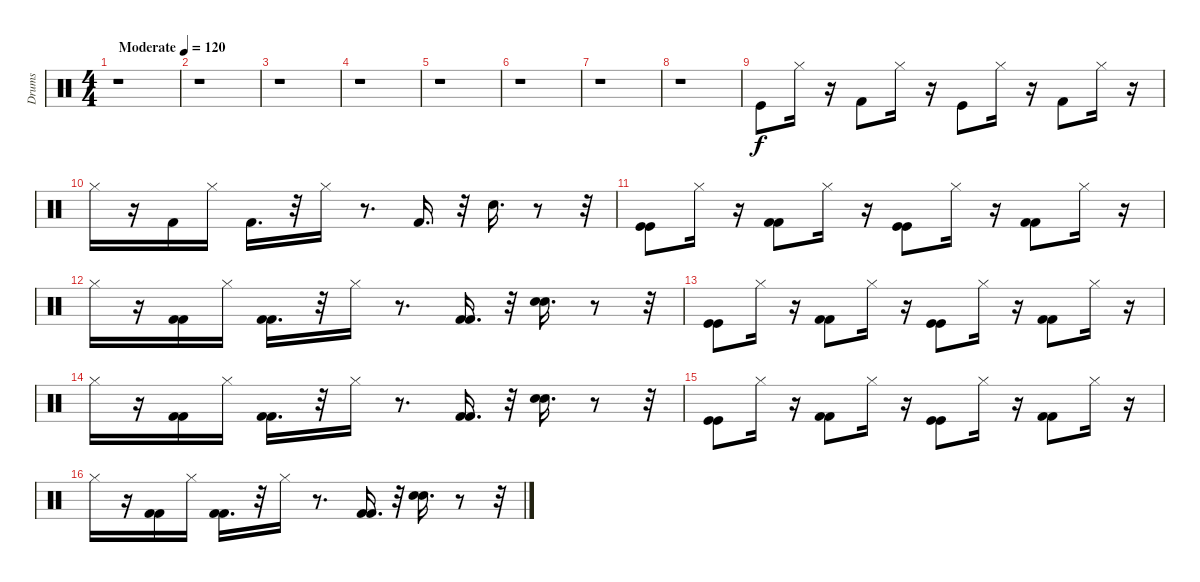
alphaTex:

\track ("Drums" "Drums") {instrument percussion}
\staff {score}
\articulation defaults
\ts (4 4)
\tempo (120 "Moderate")
\clef neutral
\ks c
r.1{dy f} |
r.1 |
r.1 |
r.1 |
r.1 |
r.1 |
r.1 |
r.1 |
"Kick (hit)".8 "Hi-Hat (closed)".16 r.16 "Kick (hit) 2".8 "Hi-Hat (closed)".16 r.16 "Kick (hit)".8 "Hi-Hat (closed)".16 r.16 "Kick (hit) 2".8 "Hi-Hat (closed)".16 r.16 |
"Hi-Hat (closed)".16 r.16 "Kick (hit) 2".16 "Hi-Hat (closed)".16 "Kick (hit) 2".16{d} r.32 "Hi-Hat (closed)".16 r.8{d} "Kick (hit) 2".16{d} r.32 "Electric Snare (hit)".16{d} r.8 r.32 |
("Kick (hit)" "Kick (hit)").8 "Hi-Hat (closed)".16 r.16 ("Kick (hit) 2" "Kick (hit) 2").8 "Hi-Hat (closed)".16 r.16 ("Kick (hit)" "Kick (hit)").8 "Hi-Hat (closed)".16 r.16 ("Kick (hit) 2" "Kick (hit) 2").8 "Hi-Hat (closed)".16 r.16 |
"Hi-Hat (closed)".16 r.16 ("Kick (hit) 2" "Kick (hit) 2").16 "Hi-Hat (closed)".16 ("Kick (hit) 2" "Kick (hit) 2").16{d} r.32 "Hi-Hat (closed)".16 r.8{d} ("Kick (hit) 2" "Kick (hit) 2").16{d} r.32 ("Electric Snare (hit)" "Electric Snare (hit)").16{d} r.8 r.32 |
("Kick (hit)" "Kick (hit)").8 "Hi-Hat (closed)".16 r.16 ("Kick (hit) 2" "Kick (hit) 2").8 "Hi-Hat (closed)".16 r.16 ("Kick (hit)" "Kick (hit)").8 "Hi-Hat (closed)".16 r.16 ("Kick (hit) 2" "Kick (hit) 2").8 "Hi-Hat (closed)".16 r.16 |
"Hi-Hat (closed)".16 r.16 ("Kick (hit) 2" "Kick (hit) 2").16 "Hi-Hat (closed)".16 ("Kick (hit) 2" "Kick (hit) 2").16{d} r.32 "Hi-Hat (closed)".16 r.8{d} ("Kick (hit) 2" "Kick (hit) 2").16{d} r.32 ("Electric Snare (hit)" "Electric Snare (hit)").16{d} r.8 r.32 |
("Kick (hit)" "Kick (hit)").8 "Hi-Hat (closed)".16 r.16 ("Kick (hit) 2" "Kick (hit) 2").8 "Hi-Hat (closed)".16 r.16 ("Kick (hit)" "Kick (hit)").8 "Hi-Hat (closed)".16 r.16 ("Kick (hit) 2" "Kick (hit) 2").8 "Hi-Hat (closed)".16 r.16 |
"Hi-Hat (closed)".16 r.16 ("Kick (hit) 2" "Kick (hit) 2").16 "Hi-Hat (closed)".16 ("Kick (hit) 2" "Kick (hit) 2").16{d} r.32 "Hi-Hat (closed)".16 r.8{d} ("Kick (hit) 2" "Kick (hit) 2").16{d} r.32 ("Electric Snare (hit)" "Electric Snare (hit)").16{d} r.8 r.32
